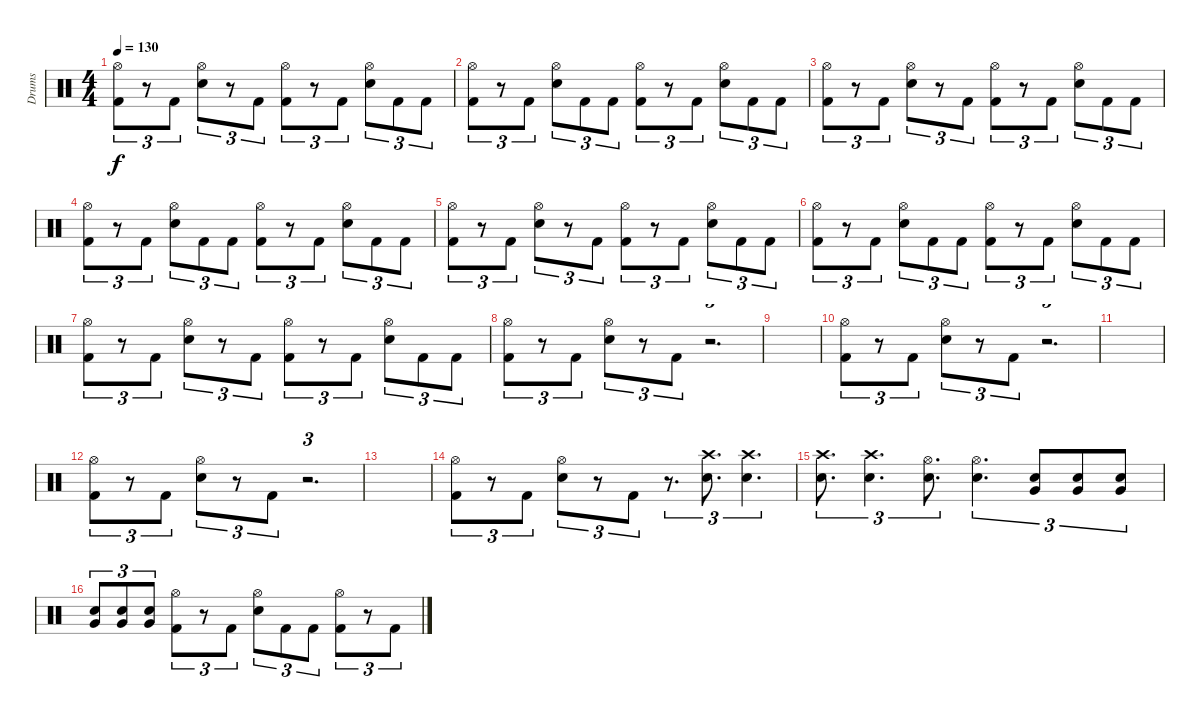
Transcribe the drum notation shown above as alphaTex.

\track ("Drums" "Drums") {instrument percussion}
\staff {score}
\articulation defaults
\ts (4 4)
\tempo 130
\clef neutral
\ks c
("Hi-Hat (open)" "Kick (hit) 2").8{tu (3 2) dy f} r.8{tu (3 2)} "Kick (hit) 2".8{tu (3 2)} ("Hi-Hat (open)" "Snare (hit) 2").8{tu (3 2)} r.8{tu (3 2)} "Kick (hit) 2".8{tu (3 2)} ("Hi-Hat (open)" "Kick (hit) 2").8{tu (3 2)} r.8{tu (3 2)} "Kick (hit) 2".8{tu (3 2)} ("Hi-Hat (open)" "Snare (hit) 2").8{tu (3 2)} "Kick (hit) 2".8{tu (3 2)} "Kick (hit) 2".8{tu (3 2)} |
("Hi-Hat (open)" "Kick (hit) 2").8{tu (3 2)} r.8{tu (3 2)} "Kick (hit) 2".8{tu (3 2)} ("Hi-Hat (open)" "Snare (hit) 2").8{tu (3 2)} "Kick (hit) 2".8{tu (3 2)} "Kick (hit) 2".8{tu (3 2)} ("Hi-Hat (open)" "Kick (hit) 2").8{tu (3 2)} r.8{tu (3 2)} "Kick (hit) 2".8{tu (3 2)} ("Hi-Hat (open)" "Snare (hit) 2").8{tu (3 2)} "Kick (hit) 2".8{tu (3 2)} "Kick (hit) 2".8{tu (3 2)} |
("Hi-Hat (open)" "Kick (hit) 2").8{tu (3 2)} r.8{tu (3 2)} "Kick (hit) 2".8{tu (3 2)} ("Hi-Hat (open)" "Snare (hit) 2").8{tu (3 2)} r.8{tu (3 2)} "Kick (hit) 2".8{tu (3 2)} ("Hi-Hat (open)" "Kick (hit) 2").8{tu (3 2)} r.8{tu (3 2)} "Kick (hit) 2".8{tu (3 2)} ("Hi-Hat (open)" "Snare (hit) 2").8{tu (3 2)} "Kick (hit) 2".8{tu (3 2)} "Kick (hit) 2".8{tu (3 2)} |
("Hi-Hat (open)" "Kick (hit) 2").8{tu (3 2)} r.8{tu (3 2)} "Kick (hit) 2".8{tu (3 2)} ("Hi-Hat (open)" "Snare (hit) 2").8{tu (3 2)} "Kick (hit) 2".8{tu (3 2)} "Kick (hit) 2".8{tu (3 2)} ("Hi-Hat (open)" "Kick (hit) 2").8{tu (3 2)} r.8{tu (3 2)} "Kick (hit) 2".8{tu (3 2)} ("Hi-Hat (open)" "Snare (hit) 2").8{tu (3 2)} "Kick (hit) 2".8{tu (3 2)} "Kick (hit) 2".8{tu (3 2)} |
("Hi-Hat (open)" "Kick (hit) 2").8{tu (3 2)} r.8{tu (3 2)} "Kick (hit) 2".8{tu (3 2)} ("Hi-Hat (open)" "Snare (hit) 2").8{tu (3 2)} r.8{tu (3 2)} "Kick (hit) 2".8{tu (3 2)} ("Hi-Hat (open)" "Kick (hit) 2").8{tu (3 2)} r.8{tu (3 2)} "Kick (hit) 2".8{tu (3 2)} ("Hi-Hat (open)" "Snare (hit) 2").8{tu (3 2)} "Kick (hit) 2".8{tu (3 2)} "Kick (hit) 2".8{tu (3 2)} |
("Hi-Hat (open)" "Kick (hit) 2").8{tu (3 2)} r.8{tu (3 2)} "Kick (hit) 2".8{tu (3 2)} ("Hi-Hat (open)" "Snare (hit) 2").8{tu (3 2)} "Kick (hit) 2".8{tu (3 2)} "Kick (hit) 2".8{tu (3 2)} ("Hi-Hat (open)" "Kick (hit) 2").8{tu (3 2)} r.8{tu (3 2)} "Kick (hit) 2".8{tu (3 2)} ("Hi-Hat (open)" "Snare (hit) 2").8{tu (3 2)} "Kick (hit) 2".8{tu (3 2)} "Kick (hit) 2".8{tu (3 2)} |
("Hi-Hat (open)" "Kick (hit) 2").8{tu (3 2)} r.8{tu (3 2)} "Kick (hit) 2".8{tu (3 2)} ("Hi-Hat (open)" "Snare (hit) 2").8{tu (3 2)} r.8{tu (3 2)} "Kick (hit) 2".8{tu (3 2)} ("Hi-Hat (open)" "Kick (hit) 2").8{tu (3 2)} r.8{tu (3 2)} "Kick (hit) 2".8{tu (3 2)} ("Hi-Hat (open)" "Snare (hit) 2").8{tu (3 2)} "Kick (hit) 2".8{tu (3 2)} "Kick (hit) 2".8{tu (3 2)} |
("Hi-Hat (open)" "Kick (hit) 2").8{tu (3 2)} r.8{tu (3 2)} "Kick (hit) 2".8{tu (3 2)} ("Hi-Hat (open)" "Snare (hit) 2").8{tu (3 2)} r.8{tu (3 2)} "Kick (hit) 2".8{tu (3 2)} r.2{d tu (3 2)} |
|
("Hi-Hat (open)" "Kick (hit) 2").8{tu (3 2)} r.8{tu (3 2)} "Kick (hit) 2".8{tu (3 2)} ("Hi-Hat (open)" "Snare (hit) 2").8{tu (3 2)} r.8{tu (3 2)} "Kick (hit) 2".8{tu (3 2)} r.2{d tu (3 2)} |
|
("Hi-Hat (open)" "Kick (hit) 2").8{tu (3 2)} r.8{tu (3 2)} "Kick (hit) 2".8{tu (3 2)} ("Hi-Hat (open)" "Snare (hit) 2").8{tu (3 2)} r.8{tu (3 2)} "Kick (hit) 2".8{tu (3 2)} r.2{d tu (3 2)} |
|
("Hi-Hat (open)" "Kick (hit) 2").8{tu (3 2)} r.8{tu (3 2)} "Kick (hit) 2".8{tu (3 2)} ("Hi-Hat (open)" "Snare (hit) 2").8{tu (3 2)} r.8{tu (3 2)} "Kick (hit) 2".8{tu (3 2)} r.8{d tu (3 2)} ("Crash high (hit)" "Snare (hit) 2").8{d tu (3 2)} ("Crash high (hit)" "Snare (hit) 2").4{d tu (3 2)} |
("Crash high (hit)" "Snare (hit) 2").8{d tu (3 2)} ("Crash high (hit)" "Snare (hit) 2").4{d tu (3 2)} ("Hi-Hat (open)" "Snare (hit) 2").8{d tu (3 2)} ("Hi-Hat (open)" "Snare (hit) 2").4{d tu (3 2)} ("Very Low Tom (hit)" "Snare (hit) 2").8{tu (3 2)} ("Very Low Tom (hit)" "Snare (hit) 2").8{tu (3 2)} ("Very Low Tom (hit)" "Snare (hit) 2").8{tu (3 2)} |
("Very Low Tom (hit)" "Snare (hit) 2").8{tu (3 2)} ("Very Low Tom (hit)" "Snare (hit) 2").8{tu (3 2)} ("Very Low Tom (hit)" "Snare (hit) 2").8{tu (3 2)} ("Hi-Hat (open)" "Kick (hit) 2").8{tu (3 2)} r.8{tu (3 2)} "Kick (hit) 2".8{tu (3 2)} ("Hi-Hat (open)" "Snare (hit) 2").8{tu (3 2)} "Kick (hit) 2".8{tu (3 2)} "Kick (hit) 2".8{tu (3 2)} ("Hi-Hat (open)" "Kick (hit) 2").8{tu (3 2)} r.8{tu (3 2)} "Kick (hit) 2".8{tu (3 2)}
